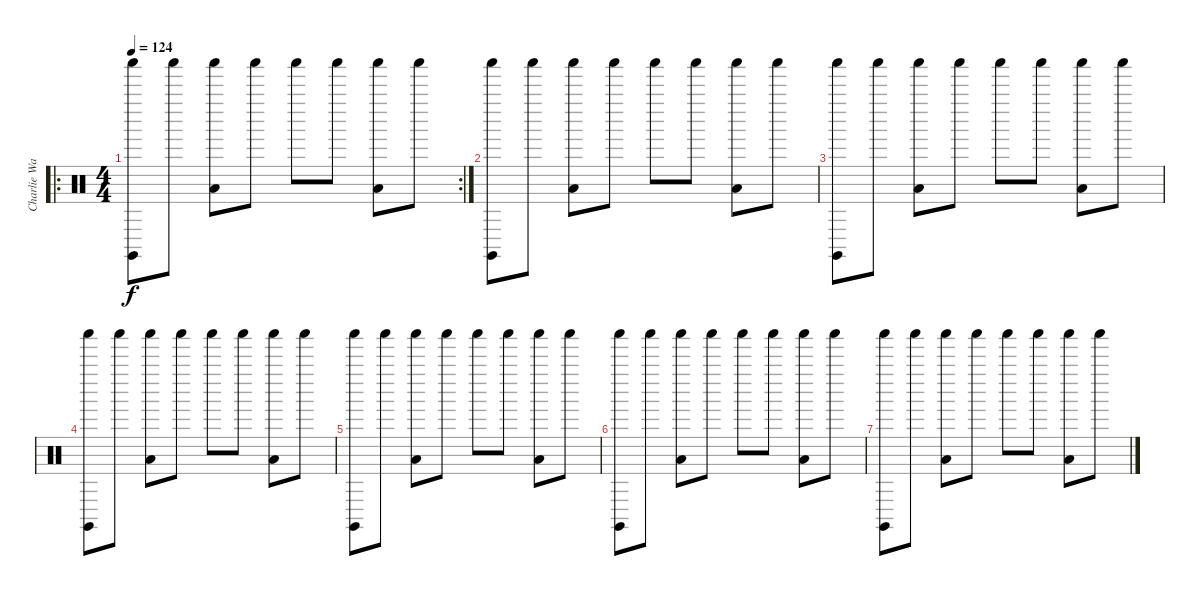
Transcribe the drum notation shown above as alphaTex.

\track ("Charlie Watts" "Charlie Wa") {instrument percussion}
\staff {score}
\articulation defaults
\ro
\rc 2
\ts (4 4)
\tempo 124
\clef neutral
\ks c
("Claves (hit)" "Shaker (hit)").8{dy f} "Shaker (hit)".8 ("Low Tom (hit)" "Shaker (hit)").8 "Shaker (hit)".8 "Shaker (hit)".8 "Shaker (hit)".8 ("Low Tom (hit)" "Shaker (hit)").8 "Shaker (hit)".8 |
("Claves (hit)" "Shaker (hit)").8 "Shaker (hit)".8 ("Low Tom (hit)" "Shaker (hit)").8 "Shaker (hit)".8 "Shaker (hit)".8 "Shaker (hit)".8 ("Low Tom (hit)" "Shaker (hit)").8 "Shaker (hit)".8 |
("Claves (hit)" "Shaker (hit)").8 "Shaker (hit)".8 ("Low Tom (hit)" "Shaker (hit)").8 "Shaker (hit)".8 "Shaker (hit)".8 "Shaker (hit)".8 ("Low Tom (hit)" "Shaker (hit)").8 "Shaker (hit)".8 |
("Claves (hit)" "Shaker (hit)").8 "Shaker (hit)".8 ("Low Tom (hit)" "Shaker (hit)").8 "Shaker (hit)".8 "Shaker (hit)".8 "Shaker (hit)".8 ("Low Tom (hit)" "Shaker (hit)").8 "Shaker (hit)".8 |
("Claves (hit)" "Shaker (hit)").8 "Shaker (hit)".8 ("Low Tom (hit)" "Shaker (hit)").8 "Shaker (hit)".8 "Shaker (hit)".8 "Shaker (hit)".8 ("Low Tom (hit)" "Shaker (hit)").8 "Shaker (hit)".8 |
("Claves (hit)" "Shaker (hit)").8 "Shaker (hit)".8 ("Low Tom (hit)" "Shaker (hit)").8 "Shaker (hit)".8 "Shaker (hit)".8 "Shaker (hit)".8 ("Low Tom (hit)" "Shaker (hit)").8 "Shaker (hit)".8 |
("Claves (hit)" "Shaker (hit)").8 "Shaker (hit)".8 ("Low Tom (hit)" "Shaker (hit)").8 "Shaker (hit)".8 "Shaker (hit)".8 "Shaker (hit)".8 ("Low Tom (hit)" "Shaker (hit)").8 "Shaker (hit)".8
